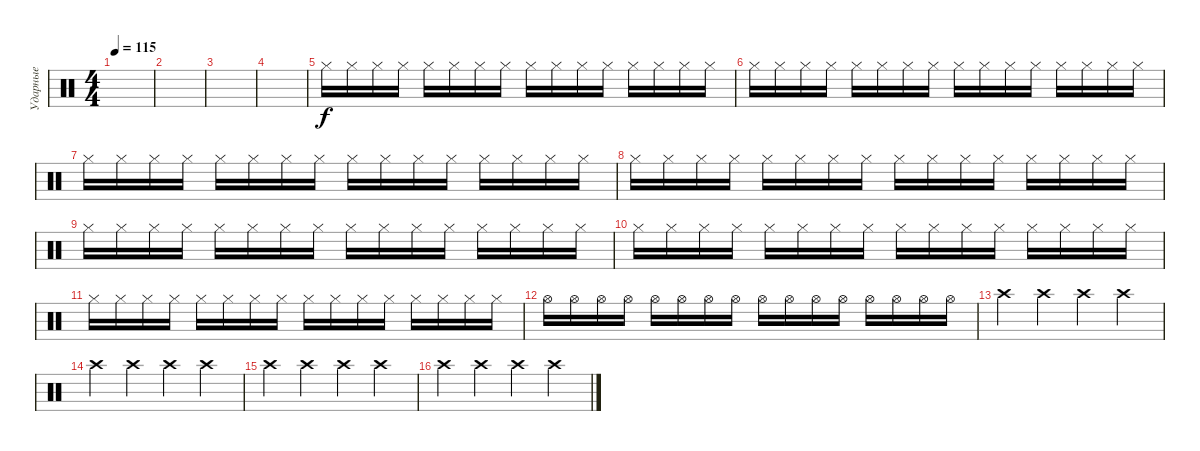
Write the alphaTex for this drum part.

\track ("Ударные" "Ударные") {instrument percussion}
\staff {score}
\articulation defaults
\ts (4 4)
\tempo 115
\clef neutral
\ks c
|
|
|
|
"Hi-Hat (closed)".16 "Hi-Hat (closed)".16 "Hi-Hat (closed)".16 "Hi-Hat (closed)".16 "Hi-Hat (closed)".16 "Hi-Hat (closed)".16 "Hi-Hat (closed)".16 "Hi-Hat (closed)".16 "Hi-Hat (closed)".16 "Hi-Hat (closed)".16 "Hi-Hat (closed)".16 "Hi-Hat (closed)".16 "Hi-Hat (closed)".16 "Hi-Hat (closed)".16 "Hi-Hat (closed)".16 "Hi-Hat (closed)".16 |
"Hi-Hat (closed)".16 "Hi-Hat (closed)".16 "Hi-Hat (closed)".16 "Hi-Hat (closed)".16 "Hi-Hat (closed)".16 "Hi-Hat (closed)".16 "Hi-Hat (closed)".16 "Hi-Hat (closed)".16 "Hi-Hat (closed)".16 "Hi-Hat (closed)".16 "Hi-Hat (closed)".16 "Hi-Hat (closed)".16 "Hi-Hat (closed)".16 "Hi-Hat (closed)".16 "Hi-Hat (closed)".16 "Hi-Hat (closed)".16 |
"Hi-Hat (closed)".16 "Hi-Hat (closed)".16 "Hi-Hat (closed)".16 "Hi-Hat (closed)".16 "Hi-Hat (closed)".16 "Hi-Hat (closed)".16 "Hi-Hat (closed)".16 "Hi-Hat (closed)".16 "Hi-Hat (closed)".16 "Hi-Hat (closed)".16 "Hi-Hat (closed)".16 "Hi-Hat (closed)".16 "Hi-Hat (closed)".16 "Hi-Hat (closed)".16 "Hi-Hat (closed)".16 "Hi-Hat (closed)".16 |
"Hi-Hat (closed)".16 "Hi-Hat (closed)".16 "Hi-Hat (closed)".16 "Hi-Hat (closed)".16 "Hi-Hat (closed)".16 "Hi-Hat (closed)".16 "Hi-Hat (closed)".16 "Hi-Hat (closed)".16 "Hi-Hat (closed)".16 "Hi-Hat (closed)".16 "Hi-Hat (closed)".16 "Hi-Hat (closed)".16 "Hi-Hat (closed)".16 "Hi-Hat (closed)".16 "Hi-Hat (closed)".16 "Hi-Hat (closed)".16 |
"Hi-Hat (closed)".16 "Hi-Hat (closed)".16 "Hi-Hat (closed)".16 "Hi-Hat (closed)".16 "Hi-Hat (closed)".16 "Hi-Hat (closed)".16 "Hi-Hat (closed)".16 "Hi-Hat (closed)".16 "Hi-Hat (closed)".16 "Hi-Hat (closed)".16 "Hi-Hat (closed)".16 "Hi-Hat (closed)".16 "Hi-Hat (closed)".16 "Hi-Hat (closed)".16 "Hi-Hat (closed)".16 "Hi-Hat (closed)".16 |
"Hi-Hat (closed)".16 "Hi-Hat (closed)".16 "Hi-Hat (closed)".16 "Hi-Hat (closed)".16 "Hi-Hat (closed)".16 "Hi-Hat (closed)".16 "Hi-Hat (closed)".16 "Hi-Hat (closed)".16 "Hi-Hat (closed)".16 "Hi-Hat (closed)".16 "Hi-Hat (closed)".16 "Hi-Hat (closed)".16 "Hi-Hat (closed)".16 "Hi-Hat (closed)".16 "Hi-Hat (closed)".16 "Hi-Hat (closed)".16 |
"Hi-Hat (closed)".16 "Hi-Hat (closed)".16 "Hi-Hat (closed)".16 "Hi-Hat (closed)".16 "Hi-Hat (closed)".16 "Hi-Hat (closed)".16 "Hi-Hat (closed)".16 "Hi-Hat (closed)".16 "Hi-Hat (closed)".16 "Hi-Hat (closed)".16 "Hi-Hat (closed)".16 "Hi-Hat (closed)".16 "Hi-Hat (closed)".16 "Hi-Hat (closed)".16 "Hi-Hat (closed)".16 "Hi-Hat (closed)".16 |
"Hi-Hat (open)".16 "Hi-Hat (open)".16 "Hi-Hat (open)".16 "Hi-Hat (open)".16 "Hi-Hat (open)".16 "Hi-Hat (open)".16 "Hi-Hat (open)".16 "Hi-Hat (open)".16 "Hi-Hat (open)".16 "Hi-Hat (open)".16 "Hi-Hat (open)".16 "Hi-Hat (open)".16 "Hi-Hat (open)".16 "Hi-Hat (open)".16 "Hi-Hat (open)".16 "Hi-Hat (open)".16 |
"Crash high (hit)".4{dy f} "Crash high (hit)".4 "Crash high (hit)".4 "Crash high (hit)".4 |
"Crash high (hit)".4 "Crash high (hit)".4 "Crash high (hit)".4 "Crash high (hit)".4 |
"Crash high (hit)".4 "Crash high (hit)".4 "Crash high (hit)".4 "Crash high (hit)".4 |
"Crash high (hit)".4 "Crash high (hit)".4 "Crash high (hit)".4 "Crash high (hit)".4
